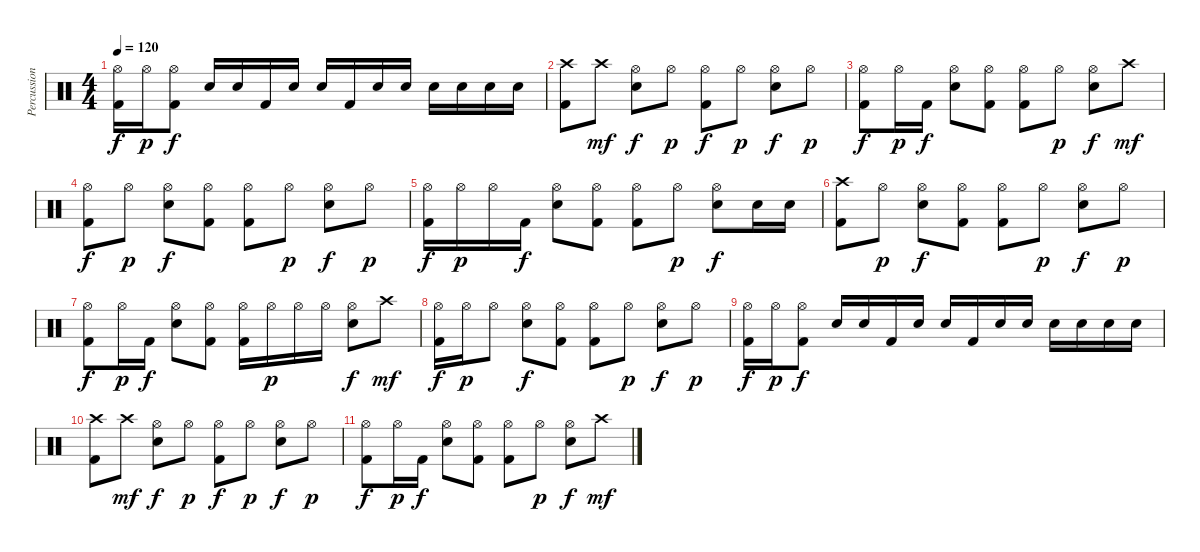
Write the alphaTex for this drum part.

\track ("Percussion" "Percussion") {instrument percussion}
\staff {score}
\articulation defaults
\ts (4 4)
\tempo 120
\clef neutral
\ks c
("Hi-Hat (open)" "Kick (hit) 2").16{dy f} "Hi-Hat (open)".16{dy p} ("Hi-Hat (open)" "Kick (hit) 2").8{dy f} "Electric Snare (hit)".16 "Electric Snare (hit)".16 "Kick (hit) 2".16 "Electric Snare (hit)".16 "Electric Snare (hit)".16 "Kick (hit) 2".16 "Electric Snare (hit)".16 "Electric Snare (hit)".16 "Electric Snare (hit)".16 "Electric Snare (hit)".16 "Electric Snare (hit)".16 "Electric Snare (hit)".16 |
("Crash high (hit)" "Kick (hit) 2").8 "Crash high (hit)".8{dy mf} ("Hi-Hat (open)" "Electric Snare (hit)").8{dy f} "Hi-Hat (open)".8{dy p} ("Hi-Hat (open)" "Kick (hit) 2").8{dy f} "Hi-Hat (open)".8{dy p} ("Hi-Hat (open)" "Electric Snare (hit)").8{dy f} "Hi-Hat (open)".8{dy p} |
("Hi-Hat (open)" "Kick (hit) 2").8{dy f} "Hi-Hat (open)".16{dy p} "Kick (hit) 2".16{dy f} ("Hi-Hat (open)" "Electric Snare (hit)").8 ("Hi-Hat (open)" "Kick (hit) 2").8 ("Hi-Hat (open)" "Kick (hit) 2").8 "Hi-Hat (open)".8{dy p} ("Hi-Hat (open)" "Electric Snare (hit)").8{dy f} "Crash high (hit)".8{dy mf} |
("Hi-Hat (open)" "Kick (hit) 2").8{dy f} "Hi-Hat (open)".8{dy p} ("Hi-Hat (open)" "Electric Snare (hit)").8{dy f} ("Hi-Hat (open)" "Kick (hit) 2").8 ("Hi-Hat (open)" "Kick (hit) 2").8 "Hi-Hat (open)".8{dy p} ("Hi-Hat (open)" "Electric Snare (hit)").8{dy f} "Hi-Hat (open)".8{dy p} |
("Hi-Hat (open)" "Kick (hit) 2").16{dy f} "Hi-Hat (open)".16{dy p} "Hi-Hat (open)".16 "Kick (hit) 2".16{dy f} ("Hi-Hat (open)" "Electric Snare (hit)").8 ("Hi-Hat (open)" "Kick (hit) 2").8 ("Hi-Hat (open)" "Kick (hit) 2").8 "Hi-Hat (open)".8{dy p} ("Hi-Hat (open)" "Electric Snare (hit)").8{dy f} "Electric Snare (hit)".16 "Electric Snare (hit)".16 |
("Crash high (hit)" "Kick (hit) 2").8 "Hi-Hat (open)".8{dy p} ("Hi-Hat (open)" "Electric Snare (hit)").8{dy f} ("Hi-Hat (open)" "Kick (hit) 2").8 ("Hi-Hat (open)" "Kick (hit) 2").8 "Hi-Hat (open)".8{dy p} ("Hi-Hat (open)" "Electric Snare (hit)").8{dy f} "Hi-Hat (open)".8{dy p} |
("Hi-Hat (open)" "Kick (hit) 2").8{dy f} "Hi-Hat (open)".16{dy p} "Kick (hit) 2".16{dy f} ("Hi-Hat (open)" "Electric Snare (hit)").8 ("Hi-Hat (open)" "Kick (hit) 2").8 ("Hi-Hat (open)" "Kick (hit) 2").16 "Hi-Hat (open)".16{dy p} "Hi-Hat (open)".16 "Hi-Hat (open)".16 ("Hi-Hat (open)" "Electric Snare (hit)").8{dy f} "Crash high (hit)".8{dy mf} |
("Hi-Hat (open)" "Kick (hit) 2").16{dy f} "Hi-Hat (open)".16{dy p} "Hi-Hat (open)".8 ("Hi-Hat (open)" "Electric Snare (hit)").8{dy f} ("Hi-Hat (open)" "Kick (hit) 2").8 ("Hi-Hat (open)" "Kick (hit) 2").8 "Hi-Hat (open)".8{dy p} ("Hi-Hat (open)" "Electric Snare (hit)").8{dy f} "Hi-Hat (open)".8{dy p} |
("Hi-Hat (open)" "Kick (hit) 2").16{dy f} "Hi-Hat (open)".16{dy p} ("Hi-Hat (open)" "Kick (hit) 2").8{dy f} "Electric Snare (hit)".16 "Electric Snare (hit)".16 "Kick (hit) 2".16 "Electric Snare (hit)".16 "Electric Snare (hit)".16 "Kick (hit) 2".16 "Electric Snare (hit)".16 "Electric Snare (hit)".16 "Electric Snare (hit)".16 "Electric Snare (hit)".16 "Electric Snare (hit)".16 "Electric Snare (hit)".16 |
("Crash high (hit)" "Kick (hit) 2").8 "Crash high (hit)".8{dy mf} ("Hi-Hat (open)" "Electric Snare (hit)").8{dy f} "Hi-Hat (open)".8{dy p} ("Hi-Hat (open)" "Kick (hit) 2").8{dy f} "Hi-Hat (open)".8{dy p} ("Hi-Hat (open)" "Electric Snare (hit)").8{dy f} "Hi-Hat (open)".8{dy p} |
("Hi-Hat (open)" "Kick (hit) 2").8{dy f} "Hi-Hat (open)".16{dy p} "Kick (hit) 2".16{dy f} ("Hi-Hat (open)" "Electric Snare (hit)").8 ("Hi-Hat (open)" "Kick (hit) 2").8 ("Hi-Hat (open)" "Kick (hit) 2").8 "Hi-Hat (open)".8{dy p} ("Hi-Hat (open)" "Electric Snare (hit)").8{dy f} "Crash high (hit)".8{dy mf}
